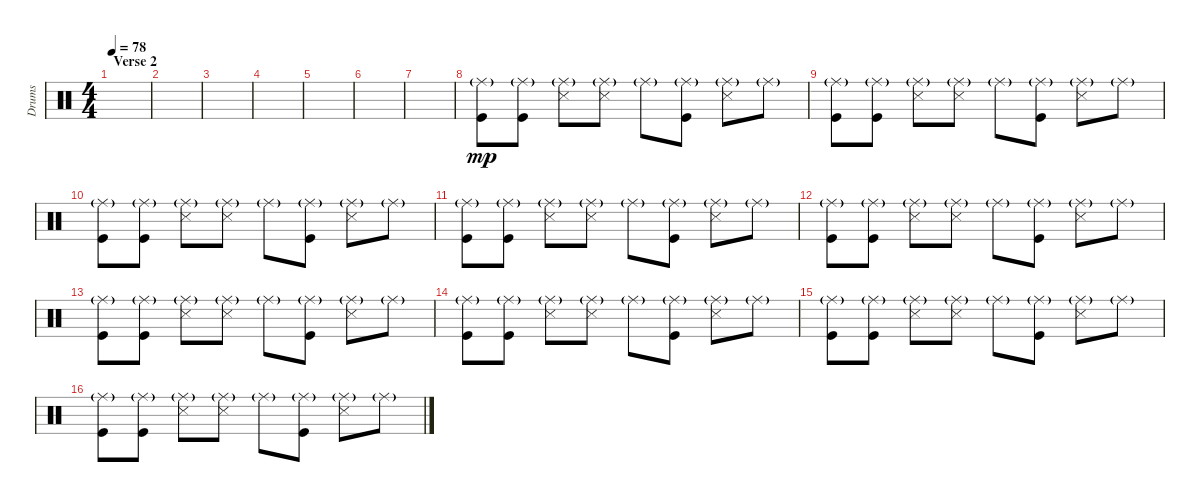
\track ("Drums" "Drums") {instrument percussion}
\staff {score}
\articulation defaults
\ts (4 4)
\section ("" "Verse 2")
\tempo 78
\clef neutral
\ks c
|
|
|
|
|
|
|
("Ride (middle)"{g} "Kick (hit)").8{dy mp} ("Ride (middle)"{g} "Kick (hit)").8 ("Ride (middle)"{g} "Snare (side stick) 3").8 ("Ride (middle)"{g} "Snare (side stick) 3").8 "Ride (middle)"{g}.8 ("Ride (middle)"{g} "Kick (hit)").8 ("Ride (middle)"{g} "Snare (side stick) 3").8 "Ride (middle)"{g}.8 |
\section ("" "")
("Ride (middle)"{g} "Kick (hit)").8 ("Ride (middle)"{g} "Kick (hit)").8 ("Ride (middle)"{g} "Snare (side stick) 3").8 ("Ride (middle)"{g} "Snare (side stick) 3").8 "Ride (middle)"{g}.8 ("Ride (middle)"{g} "Kick (hit)").8 ("Ride (middle)"{g} "Snare (side stick) 3").8 "Ride (middle)"{g}.8 |
("Ride (middle)"{g} "Kick (hit)").8 ("Ride (middle)"{g} "Kick (hit)").8 ("Ride (middle)"{g} "Snare (side stick) 3").8 ("Ride (middle)"{g} "Snare (side stick) 3").8 "Ride (middle)"{g}.8 ("Ride (middle)"{g} "Kick (hit)").8 ("Ride (middle)"{g} "Snare (side stick) 3").8 "Ride (middle)"{g}.8 |
("Ride (middle)"{g} "Kick (hit)").8 ("Ride (middle)"{g} "Kick (hit)").8 ("Ride (middle)"{g} "Snare (side stick) 3").8 ("Ride (middle)"{g} "Snare (side stick) 3").8 "Ride (middle)"{g}.8 ("Ride (middle)"{g} "Kick (hit)").8 ("Ride (middle)"{g} "Snare (side stick) 3").8 "Ride (middle)"{g}.8 |
("Ride (middle)"{g} "Kick (hit)").8 ("Ride (middle)"{g} "Kick (hit)").8 ("Ride (middle)"{g} "Snare (side stick) 3").8 ("Ride (middle)"{g} "Snare (side stick) 3").8 "Ride (middle)"{g}.8 ("Ride (middle)"{g} "Kick (hit)").8 ("Ride (middle)"{g} "Snare (side stick) 3").8 "Ride (middle)"{g}.8 |
("Ride (middle)"{g} "Kick (hit)").8 ("Ride (middle)"{g} "Kick (hit)").8 ("Ride (middle)"{g} "Snare (side stick) 3").8 ("Ride (middle)"{g} "Snare (side stick) 3").8 "Ride (middle)"{g}.8 ("Ride (middle)"{g} "Kick (hit)").8 ("Ride (middle)"{g} "Snare (side stick) 3").8 "Ride (middle)"{g}.8 |
("Ride (middle)"{g} "Kick (hit)").8 ("Ride (middle)"{g} "Kick (hit)").8 ("Ride (middle)"{g} "Snare (side stick) 3").8 ("Ride (middle)"{g} "Snare (side stick) 3").8 "Ride (middle)"{g}.8 ("Ride (middle)"{g} "Kick (hit)").8 ("Ride (middle)"{g} "Snare (side stick) 3").8 "Ride (middle)"{g}.8 |
("Ride (middle)"{g} "Kick (hit)").8 ("Ride (middle)"{g} "Kick (hit)").8 ("Ride (middle)"{g} "Snare (side stick) 3").8 ("Ride (middle)"{g} "Snare (side stick) 3").8 "Ride (middle)"{g}.8 ("Ride (middle)"{g} "Kick (hit)").8 ("Ride (middle)"{g} "Snare (side stick) 3").8 "Ride (middle)"{g}.8 |
("Ride (middle)"{g} "Kick (hit)").8 ("Ride (middle)"{g} "Kick (hit)").8 ("Ride (middle)"{g} "Snare (side stick) 3").8 ("Ride (middle)"{g} "Snare (side stick) 3").8 "Ride (middle)"{g}.8 ("Ride (middle)"{g} "Kick (hit)").8 ("Ride (middle)"{g} "Snare (side stick) 3").8 "Ride (middle)"{g}.8
